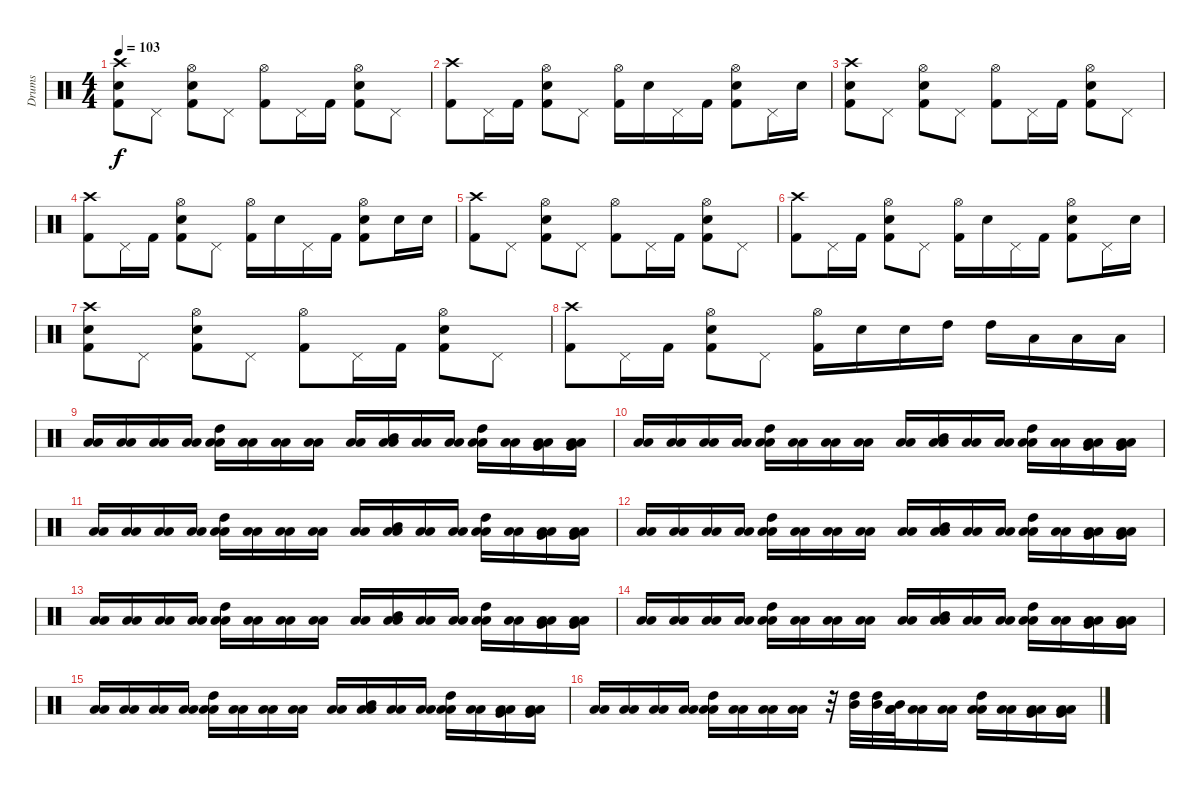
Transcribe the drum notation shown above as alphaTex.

\track ("Drums" "Drums") {instrument percussion}
\staff {score}
\articulation defaults
\ts (4 4)
\tempo 103
\clef neutral
\ks c
("Crash high (hit)" "Electric Snare (hit)" "Kick (hit) 2").8{dy f} "Pedal Hi-Hat (hit)".8 ("Hi-Hat (open)" "Electric Snare (hit)" "Kick (hit) 2").8 "Pedal Hi-Hat (hit)".8 ("Hi-Hat (open)" "Kick (hit) 2").8 "Pedal Hi-Hat (hit)".16 "Kick (hit) 2".16 ("Hi-Hat (open)" "Electric Snare (hit)" "Kick (hit) 2").8 "Pedal Hi-Hat (hit)".8 |
("Crash high (hit)" "Kick (hit) 2").8 "Pedal Hi-Hat (hit)".16 "Kick (hit) 2".16 ("Hi-Hat (open)" "Electric Snare (hit)" "Kick (hit) 2").8 "Pedal Hi-Hat (hit)".8 ("Hi-Hat (open)" "Kick (hit) 2").16 "Electric Snare (hit)".16 "Pedal Hi-Hat (hit)".16 "Kick (hit) 2".16 ("Hi-Hat (open)" "Electric Snare (hit)" "Kick (hit) 2").8 "Pedal Hi-Hat (hit)".16 "Electric Snare (hit)".16 |
("Crash high (hit)" "Electric Snare (hit)" "Kick (hit) 2").8 "Pedal Hi-Hat (hit)".8 ("Hi-Hat (open)" "Electric Snare (hit)" "Kick (hit) 2").8 "Pedal Hi-Hat (hit)".8 ("Hi-Hat (open)" "Kick (hit) 2").8 "Pedal Hi-Hat (hit)".16 "Kick (hit) 2".16 ("Hi-Hat (open)" "Electric Snare (hit)" "Kick (hit) 2").8 "Pedal Hi-Hat (hit)".8 |
("Crash high (hit)" "Kick (hit) 2").8 "Pedal Hi-Hat (hit)".16 "Kick (hit) 2".16 ("Hi-Hat (open)" "Electric Snare (hit)" "Kick (hit) 2").8 "Pedal Hi-Hat (hit)".8 ("Hi-Hat (open)" "Kick (hit) 2").16 "Electric Snare (hit)".16 "Pedal Hi-Hat (hit)".16 "Kick (hit) 2".16 ("Hi-Hat (open)" "Electric Snare (hit)" "Kick (hit) 2").8 "Electric Snare (hit)".16 "Electric Snare (hit)".16 |
("Crash high (hit)" "Kick (hit) 2").8 "Pedal Hi-Hat (hit)".8 ("Hi-Hat (open)" "Electric Snare (hit)" "Kick (hit) 2").8 "Pedal Hi-Hat (hit)".8 ("Hi-Hat (open)" "Kick (hit) 2").8 "Pedal Hi-Hat (hit)".16 "Kick (hit) 2".16 ("Hi-Hat (open)" "Electric Snare (hit)" "Kick (hit) 2").8 "Pedal Hi-Hat (hit)".8 |
("Crash high (hit)" "Kick (hit) 2").8 "Pedal Hi-Hat (hit)".16 "Kick (hit) 2".16 ("Hi-Hat (open)" "Electric Snare (hit)" "Kick (hit) 2").8 "Pedal Hi-Hat (hit)".8 ("Hi-Hat (open)" "Kick (hit) 2").16 "Electric Snare (hit)".16 "Pedal Hi-Hat (hit)".16 "Kick (hit) 2".16 ("Hi-Hat (open)" "Electric Snare (hit)" "Kick (hit) 2").8 "Pedal Hi-Hat (hit)".16 "Electric Snare (hit)".16 |
("Crash high (hit)" "Electric Snare (hit)" "Kick (hit) 2").8 "Pedal Hi-Hat (hit)".8 ("Hi-Hat (open)" "Electric Snare (hit)" "Kick (hit) 2").8 "Pedal Hi-Hat (hit)".8 ("Hi-Hat (open)" "Kick (hit) 2").8 "Pedal Hi-Hat (hit)".16 "Kick (hit) 2".16 ("Hi-Hat (open)" "Electric Snare (hit)" "Kick (hit) 2").8 "Pedal Hi-Hat (hit)".8 |
("Crash high (hit)" "Kick (hit) 2").8 "Pedal Hi-Hat (hit)".16 "Kick (hit) 2".16 ("Hi-Hat (open)" "Electric Snare (hit)" "Kick (hit) 2").8 "Pedal Hi-Hat (hit)".8 ("Hi-Hat (open)" "Kick (hit) 2").16 "Electric Snare (hit)".16 "Electric Snare (hit)".16 "High Tom (hit)".16 "High Tom (hit)".16 "Low Tom (hit)".16 "Low Tom (hit)".16 "Low Tom (hit)".16 |
("Low Tom (hit)" "Low Tom (hit)").16 ("Low Tom (hit)" "Low Tom (hit)").16 ("Low Tom (hit)" "Low Tom (hit)").16 ("Low Tom (hit)" "Low Tom (hit)").16 ("Low Tom (hit)" "High Tom (hit)" "Low Tom (hit)").16 ("Low Tom (hit)" "Low Tom (hit)").16 ("Low Tom (hit)" "Low Tom (hit)").16 ("Low Tom (hit)" "Low Tom (hit)").16 ("Low Tom (hit)" "Low Tom (hit)").16 ("Low Tom (hit)" "Mid Tom (hit)" "Low Tom (hit)").16 ("Low Tom (hit)" "Low Tom (hit)").16 ("Low Tom (hit)" "Low Tom (hit)").16 ("Low Tom (hit)" "High Tom (hit)" "Low Tom (hit)").16 ("Low Tom (hit)" "Low Tom (hit)").16 ("Low Tom (hit)" "Very Low Tom (hit)" "Low Tom (hit)").16 ("Low Tom (hit)" "Very Low Tom (hit)" "Low Tom (hit)").16 |
("Low Tom (hit)" "Low Tom (hit)").16 ("Low Tom (hit)" "Low Tom (hit)").16 ("Low Tom (hit)" "Low Tom (hit)").16 ("Low Tom (hit)" "Low Tom (hit)").16 ("Low Tom (hit)" "High Tom (hit)" "Low Tom (hit)").16 ("Low Tom (hit)" "Low Tom (hit)").16 ("Low Tom (hit)" "Low Tom (hit)").16 ("Low Tom (hit)" "Low Tom (hit)").16 ("Low Tom (hit)" "Low Tom (hit)").16 ("Low Tom (hit)" "Mid Tom (hit)" "Low Tom (hit)").16 ("Low Tom (hit)" "Low Tom (hit)").16 ("Low Tom (hit)" "Low Tom (hit)").16 ("Low Tom (hit)" "High Tom (hit)" "Low Tom (hit)").16 ("Low Tom (hit)" "Low Tom (hit)").16 ("Low Tom (hit)" "Very Low Tom (hit)" "Low Tom (hit)").16 ("Low Tom (hit)" "Very Low Tom (hit)" "Low Tom (hit)").16 |
("Low Tom (hit)" "Low Tom (hit)").16 ("Low Tom (hit)" "Low Tom (hit)").16 ("Low Tom (hit)" "Low Tom (hit)").16 ("Low Tom (hit)" "Low Tom (hit)").16 ("Low Tom (hit)" "High Tom (hit)" "Low Tom (hit)").16 ("Low Tom (hit)" "Low Tom (hit)").16 ("Low Tom (hit)" "Low Tom (hit)").16 ("Low Tom (hit)" "Low Tom (hit)").16 ("Low Tom (hit)" "Low Tom (hit)").16 ("Low Tom (hit)" "Mid Tom (hit)" "Low Tom (hit)").16 ("Low Tom (hit)" "Low Tom (hit)").16 ("Low Tom (hit)" "Low Tom (hit)").16 ("Low Tom (hit)" "High Tom (hit)" "Low Tom (hit)").16 ("Low Tom (hit)" "Low Tom (hit)").16 ("Low Tom (hit)" "Very Low Tom (hit)" "Low Tom (hit)").16 ("Low Tom (hit)" "Very Low Tom (hit)" "Low Tom (hit)").16 |
("Low Tom (hit)" "Low Tom (hit)").16 ("Low Tom (hit)" "Low Tom (hit)").16 ("Low Tom (hit)" "Low Tom (hit)").16 ("Low Tom (hit)" "Low Tom (hit)").16 ("Low Tom (hit)" "High Tom (hit)" "Low Tom (hit)").16 ("Low Tom (hit)" "Low Tom (hit)").16 ("Low Tom (hit)" "Low Tom (hit)").16 ("Low Tom (hit)" "Low Tom (hit)").16 ("Low Tom (hit)" "Low Tom (hit)").16 ("Low Tom (hit)" "Mid Tom (hit)" "Low Tom (hit)").16 ("Low Tom (hit)" "Low Tom (hit)").16 ("Low Tom (hit)" "Low Tom (hit)").16 ("Low Tom (hit)" "High Tom (hit)" "Low Tom (hit)").16 ("Low Tom (hit)" "Low Tom (hit)").16 ("Low Tom (hit)" "Very Low Tom (hit)" "Low Tom (hit)").16 ("Low Tom (hit)" "Very Low Tom (hit)" "Low Tom (hit)").16 |
("Low Tom (hit)" "Low Tom (hit)").16 ("Low Tom (hit)" "Low Tom (hit)").16 ("Low Tom (hit)" "Low Tom (hit)").16 ("Low Tom (hit)" "Low Tom (hit)").16 ("Low Tom (hit)" "High Tom (hit)" "Low Tom (hit)").16 ("Low Tom (hit)" "Low Tom (hit)").16 ("Low Tom (hit)" "Low Tom (hit)").16 ("Low Tom (hit)" "Low Tom (hit)").16 ("Low Tom (hit)" "Low Tom (hit)").16 ("Low Tom (hit)" "Mid Tom (hit)" "Low Tom (hit)").16 ("Low Tom (hit)" "Low Tom (hit)").16 ("Low Tom (hit)" "Low Tom (hit)").16 ("Low Tom (hit)" "High Tom (hit)" "Low Tom (hit)").16 ("Low Tom (hit)" "Low Tom (hit)").16 ("Low Tom (hit)" "Very Low Tom (hit)" "Low Tom (hit)").16 ("Low Tom (hit)" "Very Low Tom (hit)" "Low Tom (hit)").16 |
("Low Tom (hit)" "Low Tom (hit)").16 ("Low Tom (hit)" "Low Tom (hit)").16 ("Low Tom (hit)" "Low Tom (hit)").16 ("Low Tom (hit)" "Low Tom (hit)").16 ("Low Tom (hit)" "High Tom (hit)" "Low Tom (hit)").16 ("Low Tom (hit)" "Low Tom (hit)").16 ("Low Tom (hit)" "Low Tom (hit)").16 ("Low Tom (hit)" "Low Tom (hit)").16 ("Low Tom (hit)" "Low Tom (hit)").16 ("Low Tom (hit)" "Mid Tom (hit)" "Low Tom (hit)").16 ("Low Tom (hit)" "Low Tom (hit)").16 ("Low Tom (hit)" "Low Tom (hit)").16 ("Low Tom (hit)" "High Tom (hit)" "Low Tom (hit)").16 ("Low Tom (hit)" "Low Tom (hit)").16 ("Low Tom (hit)" "Very Low Tom (hit)" "Low Tom (hit)").16 ("Low Tom (hit)" "Very Low Tom (hit)" "Low Tom (hit)").16 |
("Low Tom (hit)" "Low Tom (hit)").16 ("Low Tom (hit)" "Low Tom (hit)").16 ("Low Tom (hit)" "Low Tom (hit)").16 ("Low Tom (hit)" "Low Tom (hit)").16 ("Low Tom (hit)" "High Tom (hit)" "Low Tom (hit)").16 ("Low Tom (hit)" "Low Tom (hit)").16 ("Low Tom (hit)" "Low Tom (hit)").16 ("Low Tom (hit)" "Low Tom (hit)").16 ("Low Tom (hit)" "Low Tom (hit)").16 ("Low Tom (hit)" "Mid Tom (hit)" "Low Tom (hit)").16 ("Low Tom (hit)" "Low Tom (hit)").16 ("Low Tom (hit)" "Low Tom (hit)").16 ("Low Tom (hit)" "High Tom (hit)" "Low Tom (hit)").16 ("Low Tom (hit)" "Low Tom (hit)").16 ("Low Tom (hit)" "Very Low Tom (hit)" "Low Tom (hit)").16 ("Low Tom (hit)" "Very Low Tom (hit)" "Low Tom (hit)").16 |
("Low Tom (hit)" "Low Tom (hit)").16 ("Low Tom (hit)" "Low Tom (hit)").16 ("Low Tom (hit)" "Low Tom (hit)").16 ("Low Tom (hit)" "Low Tom (hit)").16 ("Low Tom (hit)" "High Tom (hit)" "Low Tom (hit)").16 ("Low Tom (hit)" "Low Tom (hit)").16 ("Low Tom (hit)" "Low Tom (hit)").16 ("Low Tom (hit)" "Low Tom (hit)").16 r.32 ("Mid Tom (hit)" "High Tom (hit)").32 ("Mid Tom (hit)" "High Tom (hit)").32 ("Low Tom (hit)" "Mid Tom (hit)" "Low Tom (hit)").32 ("Low Tom (hit)" "Low Tom (hit)").16 ("Low Tom (hit)" "Low Tom (hit)").16 ("Low Tom (hit)" "High Tom (hit)" "Low Tom (hit)").16 ("Low Tom (hit)" "Low Tom (hit)").16 ("Low Tom (hit)" "Very Low Tom (hit)" "Low Tom (hit)").16 ("Low Tom (hit)" "Very Low Tom (hit)" "Low Tom (hit)").16
